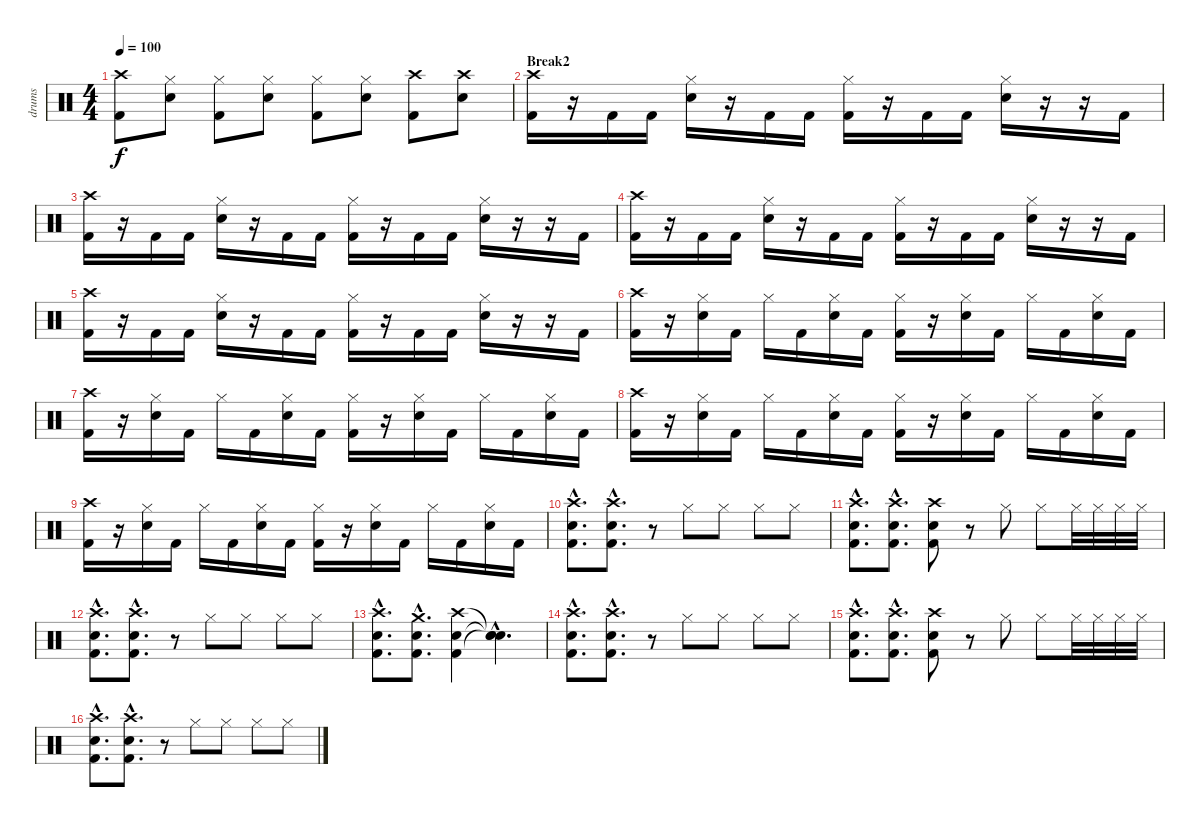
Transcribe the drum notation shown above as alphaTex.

\track ("drums" "drums") {instrument percussion}
\staff {score}
\articulation defaults
\ts (4 4)
\tempo 100
\clef neutral
\ks c
("Crash high (hit)" "Kick (hit) 2").8{dy f} ("Hi-Hat (closed)" "Snare (hit) 2").8 ("Hi-Hat (closed)" "Kick (hit) 2").8 ("Hi-Hat (closed)" "Snare (hit) 2").8 ("Hi-Hat (closed)" "Kick (hit) 2").8 ("Hi-Hat (closed)" "Snare (hit) 2").8 ("Crash high (hit)" "Kick (hit) 2").8 ("Crash high (hit)" "Snare (hit) 2").8 |
\section ("" "Break2")
("Crash high (hit)" "Kick (hit) 2").16 r.16 "Kick (hit) 2".16 "Kick (hit) 2".16 ("Hi-Hat (closed)" "Snare (hit) 2").16 r.16 "Kick (hit) 2".16 "Kick (hit) 2".16 ("Hi-Hat (closed)" "Kick (hit) 2").16 r.16 "Kick (hit) 2".16 "Kick (hit) 2".16 ("Hi-Hat (closed)" "Snare (hit) 2").16 r.16 r.16 "Kick (hit) 2".16 |
("Crash high (hit)" "Kick (hit) 2").16 r.16 "Kick (hit) 2".16 "Kick (hit) 2".16 ("Hi-Hat (closed)" "Snare (hit) 2").16 r.16 "Kick (hit) 2".16 "Kick (hit) 2".16 ("Hi-Hat (closed)" "Kick (hit) 2").16 r.16 "Kick (hit) 2".16 "Kick (hit) 2".16 ("Hi-Hat (closed)" "Snare (hit) 2").16 r.16 r.16 "Kick (hit) 2".16 |
("Crash high (hit)" "Kick (hit) 2").16 r.16 "Kick (hit) 2".16 "Kick (hit) 2".16 ("Hi-Hat (closed)" "Snare (hit) 2").16 r.16 "Kick (hit) 2".16 "Kick (hit) 2".16 ("Hi-Hat (closed)" "Kick (hit) 2").16 r.16 "Kick (hit) 2".16 "Kick (hit) 2".16 ("Hi-Hat (closed)" "Snare (hit) 2").16 r.16 r.16 "Kick (hit) 2".16 |
("Crash high (hit)" "Kick (hit) 2").16 r.16 "Kick (hit) 2".16 "Kick (hit) 2".16 ("Hi-Hat (closed)" "Snare (hit) 2").16 r.16 "Kick (hit) 2".16 "Kick (hit) 2".16 ("Hi-Hat (closed)" "Kick (hit) 2").16 r.16 "Kick (hit) 2".16 "Kick (hit) 2".16 ("Hi-Hat (closed)" "Snare (hit) 2").16 r.16 r.16 "Kick (hit) 2".16 |
("Crash high (hit)" "Kick (hit) 2").16 r.16 ("Hi-Hat (closed)" "Snare (hit) 2").16 "Kick (hit) 2".16 "Hi-Hat (closed)".16 "Kick (hit) 2".16 ("Hi-Hat (closed)" "Snare (hit) 2").16 "Kick (hit) 2".16 ("Hi-Hat (closed)" "Kick (hit) 2").16 r.16 ("Hi-Hat (closed)" "Snare (hit) 2").16 "Kick (hit) 2".16 "Hi-Hat (closed)".16 "Kick (hit) 2".16 ("Hi-Hat (closed)" "Snare (hit) 2").16 "Kick (hit) 2".16 |
("Crash high (hit)" "Kick (hit) 2").16 r.16 ("Hi-Hat (closed)" "Snare (hit) 2").16 "Kick (hit) 2".16 "Hi-Hat (closed)".16 "Kick (hit) 2".16 ("Hi-Hat (closed)" "Snare (hit) 2").16 "Kick (hit) 2".16 ("Hi-Hat (closed)" "Kick (hit) 2").16 r.16 ("Hi-Hat (closed)" "Snare (hit) 2").16 "Kick (hit) 2".16 "Hi-Hat (closed)".16 "Kick (hit) 2".16 ("Hi-Hat (closed)" "Snare (hit) 2").16 "Kick (hit) 2".16 |
("Crash high (hit)" "Kick (hit) 2").16 r.16 ("Hi-Hat (closed)" "Snare (hit) 2").16 "Kick (hit) 2".16 "Hi-Hat (closed)".16 "Kick (hit) 2".16 ("Hi-Hat (closed)" "Snare (hit) 2").16 "Kick (hit) 2".16 ("Hi-Hat (closed)" "Kick (hit) 2").16 r.16 ("Hi-Hat (closed)" "Snare (hit) 2").16 "Kick (hit) 2".16 "Hi-Hat (closed)".16 "Kick (hit) 2".16 ("Hi-Hat (closed)" "Snare (hit) 2").16 "Kick (hit) 2".16 |
("Crash high (hit)" "Kick (hit) 2").16 r.16 ("Hi-Hat (closed)" "Snare (hit) 2").16 "Kick (hit) 2".16 "Hi-Hat (closed)".16 "Kick (hit) 2".16 ("Hi-Hat (closed)" "Snare (hit) 2").16 "Kick (hit) 2".16 ("Hi-Hat (closed)" "Kick (hit) 2").16 r.16 ("Hi-Hat (closed)" "Snare (hit) 2").16 "Kick (hit) 2".16 "Hi-Hat (closed)".16 "Kick (hit) 2".16 ("Hi-Hat (closed)" "Snare (hit) 2").16 "Kick (hit) 2".16 |
("Crash high (hit)"{hac} "Snare (hit) 2"{hac} "Kick (hit) 2"{hac}).8{d} ("Crash high (hit)"{hac} "Snare (hit) 2"{hac} "Kick (hit) 2"{hac}).8{d} r.8 "Hi-Hat (closed)".8 "Hi-Hat (closed)".8 "Hi-Hat (closed)".8 "Hi-Hat (closed)".8 |
("Crash high (hit)"{hac} "Snare (hit) 2"{hac} "Kick (hit) 2"{hac}).8{d} ("Crash high (hit)"{hac} "Snare (hit) 2"{hac} "Kick (hit) 2"{hac}).8{d} ("Crash high (hit)" "Snare (hit) 2" "Kick (hit) 2").8 r.8 "Hi-Hat (closed)".8 "Hi-Hat (closed)".8 "Hi-Hat (closed)".32 "Hi-Hat (closed)".32 "Hi-Hat (closed)".32 "Hi-Hat (closed)".32 |
("Crash high (hit)"{hac} "Snare (hit) 2"{hac} "Kick (hit) 2"{hac}).8{d} ("Crash high (hit)"{hac} "Snare (hit) 2"{hac} "Kick (hit) 2"{hac}).8{d} r.8 "Hi-Hat (closed)".8 "Hi-Hat (closed)".8 "Hi-Hat (closed)".8 "Hi-Hat (closed)".8 |
("Crash high (hit)"{hac} "Snare (hit) 2"{hac} "Kick (hit) 2"{hac}).8{d} ("Crash medium (hit)"{hac} "Snare (hit) 2"{hac} "Kick (hit) 2"{hac}).8{d} ("Crash high (hit)" "Snare (hit) 2" "Kick (hit) 2").4 ("Snare (hit)"{hac t} "Snare (hit)"{hac t} "Snare (hit)"{hac t}).4{d} |
("Crash high (hit)"{hac} "Snare (hit) 2"{hac} "Kick (hit) 2"{hac}).8{d} ("Crash high (hit)"{hac} "Snare (hit) 2"{hac} "Kick (hit) 2"{hac}).8{d} r.8 "Hi-Hat (closed)".8 "Hi-Hat (closed)".8 "Hi-Hat (closed)".8 "Hi-Hat (closed)".8 |
("Crash high (hit)"{hac} "Snare (hit) 2"{hac} "Kick (hit) 2"{hac}).8{d} ("Crash high (hit)"{hac} "Snare (hit) 2"{hac} "Kick (hit) 2"{hac}).8{d} ("Crash high (hit)" "Snare (hit) 2" "Kick (hit) 2").8 r.8 "Hi-Hat (closed)".8 "Hi-Hat (closed)".8 "Hi-Hat (closed)".32 "Hi-Hat (closed)".32 "Hi-Hat (closed)".32 "Hi-Hat (closed)".32 |
("Crash high (hit)"{hac} "Snare (hit) 2"{hac} "Kick (hit) 2"{hac}).8{d} ("Crash high (hit)"{hac} "Snare (hit) 2"{hac} "Kick (hit) 2"{hac}).8{d} r.8 "Hi-Hat (closed)".8 "Hi-Hat (closed)".8 "Hi-Hat (closed)".8 "Hi-Hat (closed)".8
